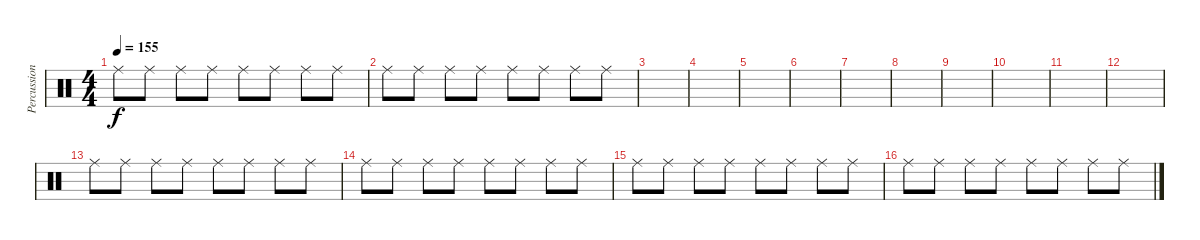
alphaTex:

\track ("Percussion 2" "Percussion") {instrument percussion}
\staff {score}
\articulation defaults
\ts (4 4)
\tempo 155
\clef neutral
\ks c "Ride (middle)".8{dy f} "Ride (middle)".8 "Ride (middle)".8 "Ride (middle)".8 "Ride (middle)".8 "Ride (middle)".8 "Ride (middle)".8 "Ride (middle)".8
|
"Ride (middle)".8 "Ride (middle)".8 "Ride (middle)".8 "Ride (middle)".8 "Ride (middle)".8 "Ride (middle)".8 "Ride (middle)".8 "Ride (middle)".8 |
|
|
|
|
|
|
|
|
|
|
"Ride (middle)".8 "Ride (middle)".8 "Ride (middle)".8 "Ride (middle)".8 "Ride (middle)".8 "Ride (middle)".8 "Ride (middle)".8 "Ride (middle)".8 |
"Ride (middle)".8 "Ride (middle)".8 "Ride (middle)".8 "Ride (middle)".8 "Ride (middle)".8 "Ride (middle)".8 "Ride (middle)".8 "Ride (middle)".8 |
"Ride (middle)".8 "Ride (middle)".8 "Ride (middle)".8 "Ride (middle)".8 "Ride (middle)".8 "Ride (middle)".8 "Ride (middle)".8 "Ride (middle)".8 |
"Ride (middle)".8 "Ride (middle)".8 "Ride (middle)".8 "Ride (middle)".8 "Ride (middle)".8 "Ride (middle)".8 "Ride (middle)".8 "Ride (middle)".8
